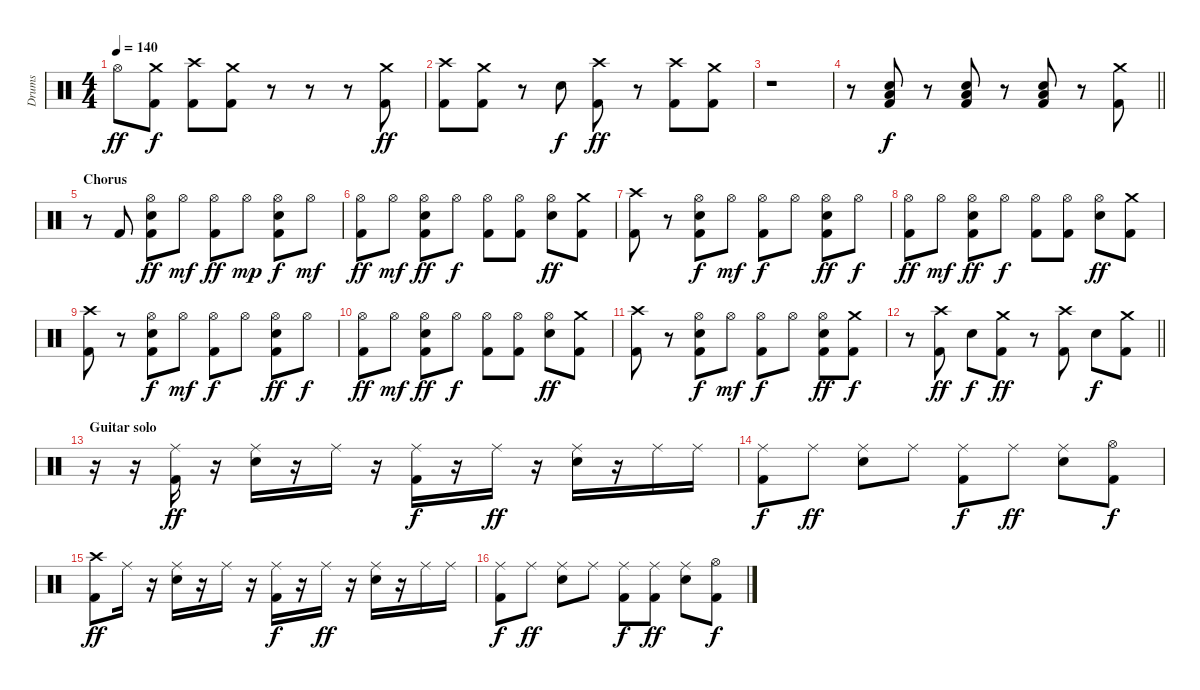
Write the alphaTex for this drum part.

\track ("Drums" "Drums") {instrument percussion}
\staff {score}
\articulation defaults
\ts (4 4)
\tempo 140
\clef neutral
\ks c "Hi-Hat (open)".8{dy ff}
("Crash medium (hit)" "Kick (hit) 2").8{dy f} ("Crash high (hit)" "Kick (hit) 2").8 ("Crash medium (hit)" "Kick (hit) 2").8 r.8 r.8 r.8 ("Crash medium (hit)" "Kick (hit) 2").8{dy ff} |
("Crash high (hit)" "Kick (hit) 2").8 ("Crash medium (hit)" "Kick (hit) 2").8 r.8 "Electric Snare (hit)".8{dy f} ("Crash high (hit)" "Kick (hit) 2").8{dy ff} r.8 ("Crash high (hit)" "Kick (hit) 2").8 ("Crash medium (hit)" "Kick (hit) 2").8 |
r.1 |
\barLineRight lightlight
r.8 ("Electric Snare (hit)" "Low Floor Tom (hit)" "Kick (hit) 2").8{dy f} r.8 ("Electric Snare (hit)" "Low Floor Tom (hit)" "Kick (hit) 2").8 r.8 ("Electric Snare (hit)" "Low Floor Tom (hit)" "Kick (hit) 2").8 r.8 ("Crash medium (hit)" "Kick (hit) 2").8 |
\section ("" "Chorus")
r.8 "Kick (hit) 2".8 ("Hi-Hat (open)" "Electric Snare (hit)" "Kick (hit) 2").8{dy ff} "Hi-Hat (open)".8{dy mf} ("Hi-Hat (open)" "Kick (hit) 2").8{dy ff} "Hi-Hat (open)".8{dy mp} ("Hi-Hat (open)" "Electric Snare (hit)" "Kick (hit) 2").8{dy f} "Hi-Hat (open)".8{dy mf} |
("Hi-Hat (open)" "Kick (hit) 2").8{dy ff} "Hi-Hat (open)".8{dy mf} ("Hi-Hat (open)" "Electric Snare (hit)" "Kick (hit) 2").8{dy ff} "Hi-Hat (open)".8{dy f} ("Hi-Hat (open)" "Kick (hit) 2").8 ("Hi-Hat (open)" "Kick (hit) 2").8 ("Hi-Hat (open)" "Electric Snare (hit)").8{dy ff} ("Crash medium (hit)" "Kick (hit) 2").8 |
("Crash high (hit)" "Kick (hit) 2").8 r.8 ("Hi-Hat (open)" "Electric Snare (hit)" "Kick (hit) 2").8{dy f} "Hi-Hat (open)".8{dy mf} ("Hi-Hat (open)" "Kick (hit) 2").8{dy f} "Hi-Hat (open)".8 ("Hi-Hat (open)" "Electric Snare (hit)" "Kick (hit) 2").8{dy ff} "Hi-Hat (open)".8{dy f} |
("Hi-Hat (open)" "Kick (hit) 2").8{dy ff} "Hi-Hat (open)".8{dy mf} ("Hi-Hat (open)" "Electric Snare (hit)" "Kick (hit) 2").8{dy ff} "Hi-Hat (open)".8{dy f} ("Hi-Hat (open)" "Kick (hit) 2").8 ("Hi-Hat (open)" "Kick (hit) 2").8 ("Hi-Hat (open)" "Electric Snare (hit)").8{dy ff} ("Crash medium (hit)" "Kick (hit) 2").8 |
("Crash high (hit)" "Kick (hit) 2").8 r.8 ("Hi-Hat (open)" "Electric Snare (hit)" "Kick (hit) 2").8{dy f} "Hi-Hat (open)".8{dy mf} ("Hi-Hat (open)" "Kick (hit) 2").8{dy f} "Hi-Hat (open)".8 ("Hi-Hat (open)" "Electric Snare (hit)" "Kick (hit) 2").8{dy ff} "Hi-Hat (open)".8{dy f} |
("Hi-Hat (open)" "Kick (hit) 2").8{dy ff} "Hi-Hat (open)".8{dy mf} ("Hi-Hat (open)" "Electric Snare (hit)" "Kick (hit) 2").8{dy ff} "Hi-Hat (open)".8{dy f} ("Hi-Hat (open)" "Kick (hit) 2").8 ("Hi-Hat (open)" "Kick (hit) 2").8 ("Hi-Hat (open)" "Electric Snare (hit)").8{dy ff} ("Crash medium (hit)" "Kick (hit) 2").8 |
("Crash high (hit)" "Kick (hit) 2").8 r.8 ("Hi-Hat (open)" "Electric Snare (hit)" "Kick (hit) 2").8{dy f} "Hi-Hat (open)".8{dy mf} ("Hi-Hat (open)" "Kick (hit) 2").8{dy f} "Hi-Hat (open)".8 ("Hi-Hat (open)" "Electric Snare (hit)" "Kick (hit) 2").8{dy ff} ("Crash medium (hit)" "Kick (hit) 2").8{dy f} |
\barLineRight lightlight
r.8 ("Crash high (hit)" "Kick (hit) 2").8{dy ff} "Electric Snare (hit)".8{dy f} ("Crash medium (hit)" "Kick (hit) 2").8{dy ff} r.8 ("Crash high (hit)" "Kick (hit) 2").8 "Electric Snare (hit)".8{dy f} ("Crash medium (hit)" "Kick (hit) 2").8 |
\section ("" "Guitar solo")
r.16 r.16 ("Ride (middle)" "Kick (hit) 2").16{dy ff} r.16 ("Ride (middle)" "Electric Snare (hit)").16 r.16 "Ride (middle)".16 r.16 ("Ride (middle)" "Kick (hit) 2").16{dy f} r.16 "Ride (middle)".16{dy ff} r.16 ("Ride (middle)" "Electric Snare (hit)").16 r.16 "Ride (middle)".16 "Ride (middle)".16 |
("Ride (middle)" "Kick (hit) 2").8{dy f} "Ride (middle)".8{dy ff} ("Ride (middle)" "Electric Snare (hit)").8 "Ride (middle)".8 ("Ride (middle)" "Kick (hit) 2").8{dy f} "Ride (middle)".8{dy ff} ("Ride (middle)" "Electric Snare (hit)").8 ("Hi-Hat (open)" "Kick (hit) 2").8{dy f} |
("Crash high (hit)" "Kick (hit) 2").8{dy ff} "Ride (middle)".16 r.16 ("Ride (middle)" "Electric Snare (hit)").16 r.16 "Ride (middle)".16 r.16 ("Ride (middle)" "Kick (hit) 2").16{dy f} r.16 "Ride (middle)".16{dy ff} r.16 ("Ride (middle)" "Electric Snare (hit)").16 r.16 "Ride (middle)".16 "Ride (middle)".16 |
("Ride (middle)" "Kick (hit) 2").8{dy f} "Ride (middle)".8{dy ff} ("Ride (middle)" "Electric Snare (hit)").8 "Ride (middle)".8 ("Ride (middle)" "Kick (hit) 2").8{dy f} ("Ride (middle)" "Kick (hit) 2").8{dy ff} ("Ride (middle)" "Electric Snare (hit)").8 ("Hi-Hat (open)" "Kick (hit) 2").8{dy f}
